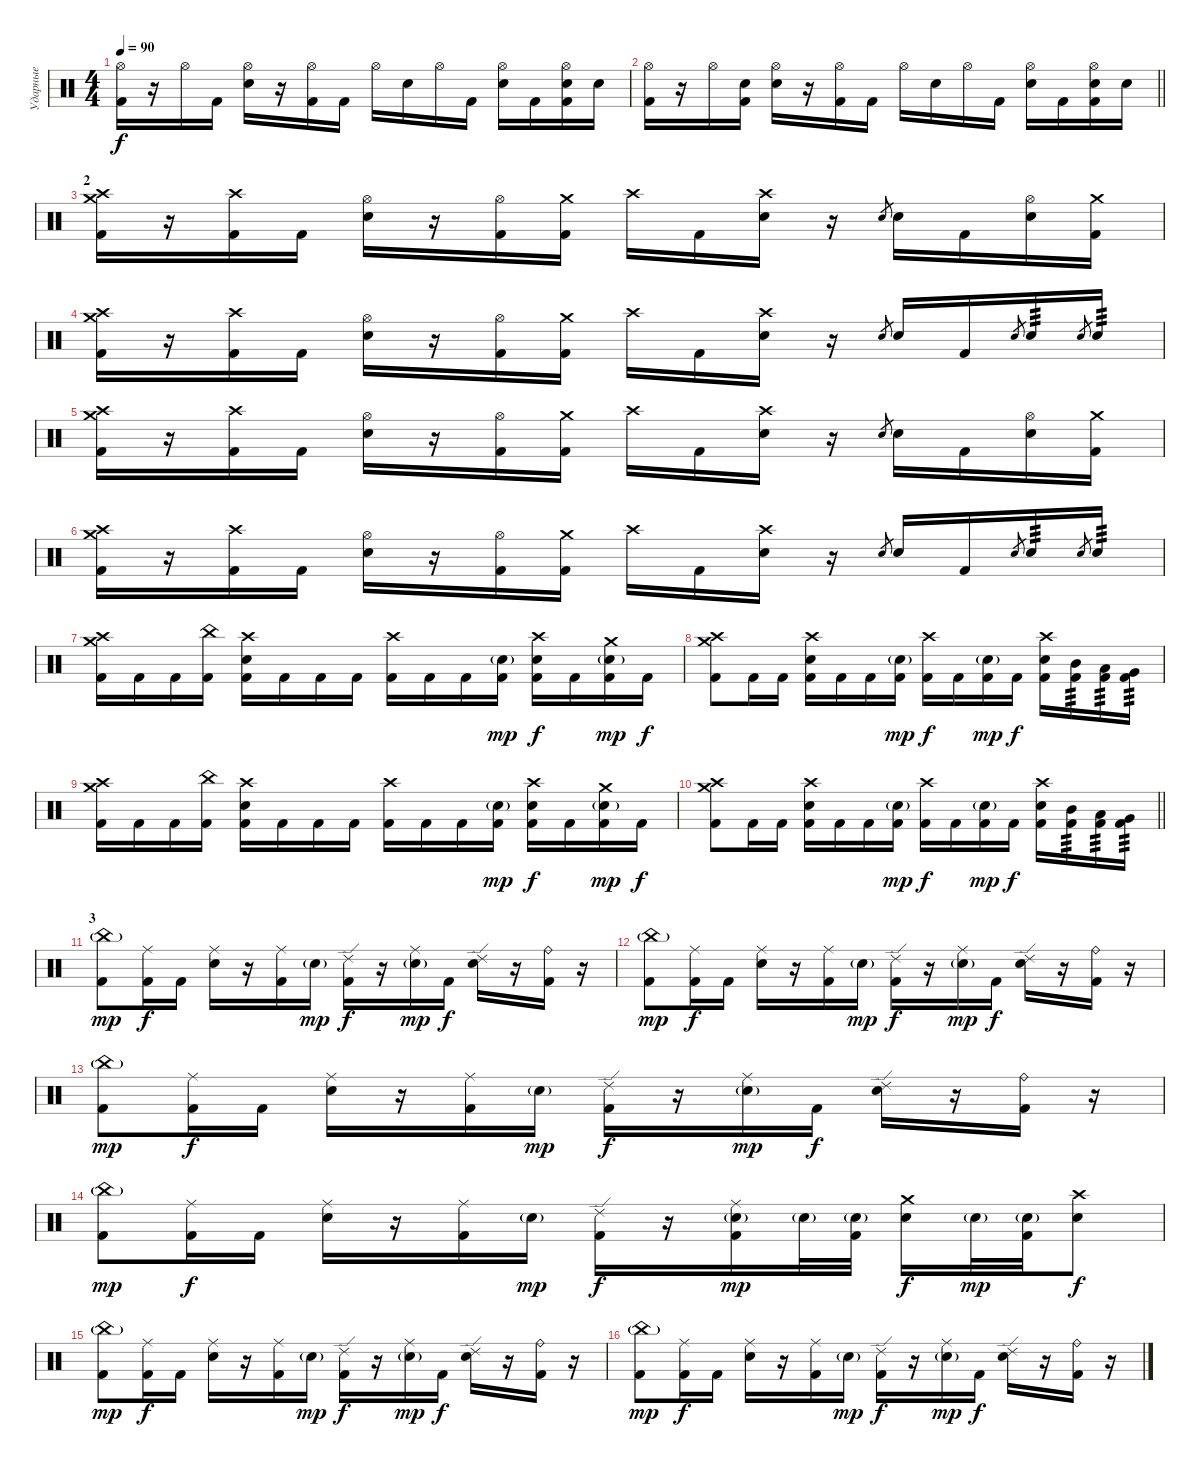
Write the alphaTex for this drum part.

\track ("Ударные" "Ударные") {instrument percussion}
\staff {score}
\articulation defaults
\ts (4 4)
\tempo 90
\clef neutral
\ks c
("Hi-Hat (open)" "Kick (hit) 2").16{dy f} r.16 "Hi-Hat (open)".16 "Kick (hit) 2".16 ("Electric Snare (hit)" "Hi-Hat (open)").16 r.16 ("Kick (hit) 2" "Hi-Hat (open)").16 "Kick (hit) 2".16 "Hi-Hat (open)".16 "Electric Snare (hit)".16 "Hi-Hat (open)".16 "Kick (hit) 2".16 ("Hi-Hat (open)" "Electric Snare (hit)").16 "Kick (hit) 2".16 ("Hi-Hat (open)" "Kick (hit) 2" "Electric Snare (hit)").16 "Electric Snare (hit)".16 |
\barLineRight lightlight
("Hi-Hat (open)" "Kick (hit) 2").16 r.16 "Hi-Hat (open)".16 ("Kick (hit) 2" "Electric Snare (hit)").16 ("Electric Snare (hit)" "Hi-Hat (open)").16 r.16 ("Kick (hit) 2" "Hi-Hat (open)").16 "Kick (hit) 2".16 "Hi-Hat (open)".16 "Electric Snare (hit)".16 "Hi-Hat (open)".16 "Kick (hit) 2".16 ("Hi-Hat (open)" "Electric Snare (hit)").16 "Kick (hit) 2".16 ("Hi-Hat (open)" "Kick (hit) 2" "Electric Snare (hit)").16 "Electric Snare (hit)".16 |
\section ("" "2")
("Kick (hit) 2" "Crash medium (hit)" "Crash high (hit)").16 r.16 ("Kick (hit) 2" "Crash high (hit)").16 "Kick (hit) 2".16 ("Electric Snare (hit)" "Hi-Hat (open)").16 r.16 ("Kick (hit) 2" "Hi-Hat (open)").16 ("Kick (hit) 2" "Crash medium (hit)").16 "Crash high (hit)".16 "Kick (hit) 2".16 ("Electric Snare (hit)" "Crash high (hit)").16 r.16 "Electric Snare (hit)".8{gr} "Electric Snare (hit)".16 "Kick (hit) 2".16 ("Electric Snare (hit)" "Hi-Hat (open)").16 ("Kick (hit) 2" "Crash medium (hit)").16 |
("Kick (hit) 2" "Crash medium (hit)" "Crash high (hit)").16 r.16 ("Kick (hit) 2" "Crash high (hit)").16 "Kick (hit) 2".16 ("Electric Snare (hit)" "Hi-Hat (open)").16 r.16 ("Kick (hit) 2" "Hi-Hat (open)").16 ("Kick (hit) 2" "Crash medium (hit)").16 "Crash high (hit)".16 "Kick (hit) 2".16 ("Electric Snare (hit)" "Crash high (hit)").16 r.16 "Electric Snare (hit)".8{gr} "Electric Snare (hit)".16 "Kick (hit) 2".16 "Electric Snare (hit)".8{gr} "Electric Snare (hit)".16{tp 3} "Electric Snare (hit)".8{gr} "Electric Snare (hit)".16{tp 3} |
("Kick (hit) 2" "Crash medium (hit)" "Crash high (hit)").16 r.16 ("Kick (hit) 2" "Crash high (hit)").16 "Kick (hit) 2".16 ("Electric Snare (hit)" "Hi-Hat (open)").16 r.16 ("Kick (hit) 2" "Hi-Hat (open)").16 ("Kick (hit) 2" "Crash medium (hit)").16 "Crash high (hit)".16 "Kick (hit) 2".16 ("Electric Snare (hit)" "Crash high (hit)").16 r.16 "Electric Snare (hit)".8{gr} "Electric Snare (hit)".16 "Kick (hit) 2".16 ("Electric Snare (hit)" "Hi-Hat (open)").16 ("Kick (hit) 2" "Crash medium (hit)").16 |
("Kick (hit) 2" "Crash medium (hit)" "Crash high (hit)").16 r.16 ("Kick (hit) 2" "Crash high (hit)").16 "Kick (hit) 2".16 ("Electric Snare (hit)" "Hi-Hat (open)").16 r.16 ("Kick (hit) 2" "Hi-Hat (open)").16 ("Kick (hit) 2" "Crash medium (hit)").16 "Crash high (hit)".16 "Kick (hit) 2".16 ("Electric Snare (hit)" "Crash high (hit)").16 r.16 "Electric Snare (hit)".8{gr} "Electric Snare (hit)".16 "Kick (hit) 2".16 "Electric Snare (hit)".8{gr} "Electric Snare (hit)".16{tp 3} "Electric Snare (hit)".8{gr} "Electric Snare (hit)".16{tp 3} |
("Kick (hit) 2" "Crash medium (hit)" "Crash high (hit)").16 "Kick (hit) 2".16 "Kick (hit) 2".16 ("Kick (hit) 2" "China (hit)").16 ("Kick (hit) 2" "Electric Snare (hit)" "Crash high (hit)").16 "Kick (hit) 2".16 "Kick (hit) 2".16 "Kick (hit) 2".16 ("Kick (hit) 2" "Crash high (hit)").16 "Kick (hit) 2".16 "Kick (hit) 2".16 ("Kick (hit) 2" "Electric Snare (hit)"{g}).16{dy mp} ("Kick (hit) 2" "Electric Snare (hit)" "Crash high (hit)").16{dy f} "Kick (hit) 2".16 ("Kick (hit) 2" "Crash medium (hit)" "Electric Snare (hit)"{g}).16{dy mp} "Kick (hit) 2".16{dy f} |
("Kick (hit) 2" "Crash medium (hit)" "Crash high (hit)").8 "Kick (hit) 2".16 "Kick (hit) 2".16 ("Kick (hit) 2" "Crash high (hit)" "Electric Snare (hit)").16 "Kick (hit) 2".16 "Kick (hit) 2".16 ("Kick (hit) 2" "Electric Snare (hit)"{g}).16{dy mp} ("Kick (hit) 2" "Crash high (hit)").16{dy f} "Kick (hit) 2".16 ("Kick (hit) 2" "Electric Snare (hit)"{g}).16{dy mp} "Kick (hit) 2".16{dy f} ("Kick (hit) 2" "Crash high (hit)" "Electric Snare (hit)").16 ("Kick (hit) 2" "Mid Tom (hit)").16{tp 3} ("Kick (hit) 2" "Low Tom (hit)").16{tp 3} ("Kick (hit) 2" "Very Low Tom (hit)").16{tp 3} |
("Kick (hit) 2" "Crash medium (hit)" "Crash high (hit)").16 "Kick (hit) 2".16 "Kick (hit) 2".16 ("Kick (hit) 2" "China (hit)").16 ("Kick (hit) 2" "Electric Snare (hit)" "Crash high (hit)").16 "Kick (hit) 2".16 "Kick (hit) 2".16 "Kick (hit) 2".16 ("Kick (hit) 2" "Crash high (hit)").16 "Kick (hit) 2".16 "Kick (hit) 2".16 ("Kick (hit) 2" "Electric Snare (hit)"{g}).16{dy mp} ("Kick (hit) 2" "Electric Snare (hit)" "Crash high (hit)").16{dy f} "Kick (hit) 2".16 ("Kick (hit) 2" "Crash medium (hit)" "Electric Snare (hit)"{g}).16{dy mp} "Kick (hit) 2".16{dy f} |
\barLineRight lightlight
("Kick (hit) 2" "Crash medium (hit)" "Crash high (hit)").8 "Kick (hit) 2".16 "Kick (hit) 2".16 ("Kick (hit) 2" "Crash high (hit)" "Electric Snare (hit)").16 "Kick (hit) 2".16 "Kick (hit) 2".16 ("Kick (hit) 2" "Electric Snare (hit)"{g}).16{dy mp} ("Kick (hit) 2" "Crash high (hit)").16{dy f} "Kick (hit) 2".16 ("Kick (hit) 2" "Electric Snare (hit)"{g}).16{dy mp} "Kick (hit) 2".16{dy f} ("Kick (hit) 2" "Crash high (hit)" "Electric Snare (hit)").16 ("Kick (hit) 2" "Mid Tom (hit)").16{tp 3} ("Kick (hit) 2" "Low Tom (hit)").16{tp 3} ("Kick (hit) 2" "Very Low Tom (hit)").16{tp 3} |
\section ("" "3")
("China (hit)"{g} "Kick (hit) 2").8{dy mp} ("Ride (middle)" "Kick (hit) 2").16{dy f} "Kick (hit) 2".16 ("Ride (middle)" "Electric Snare (hit)").16 r.16 ("Kick (hit) 2" "Ride (middle)").16 "Electric Snare (hit)"{g}.16{dy mp} ("Kick (hit) 2" "Ride (edge) 2").16{dy f} r.16 ("Ride (middle)" "Electric Snare (hit)"{g}).16{dy mp} "Kick (hit) 2".16{dy f} ("Electric Snare (hit)" "Ride (edge) 2").16 r.16 ("Kick (hit) 2" "Ride (bell)").16 r.16 |
("China (hit)"{g} "Kick (hit) 2").8{dy mp} ("Ride (middle)" "Kick (hit) 2").16{dy f} "Kick (hit) 2".16 ("Ride (middle)" "Electric Snare (hit)").16 r.16 ("Kick (hit) 2" "Ride (middle)").16 "Electric Snare (hit)"{g}.16{dy mp} ("Kick (hit) 2" "Ride (edge) 2").16{dy f} r.16 ("Ride (middle)" "Electric Snare (hit)"{g}).16{dy mp} "Kick (hit) 2".16{dy f} ("Electric Snare (hit)" "Ride (edge) 2").16 r.16 ("Kick (hit) 2" "Ride (bell)").16 r.16 |
("China (hit)"{g} "Kick (hit) 2").8{dy mp} ("Ride (middle)" "Kick (hit) 2").16{dy f} "Kick (hit) 2".16 ("Ride (middle)" "Electric Snare (hit)").16 r.16 ("Kick (hit) 2" "Ride (middle)").16 "Electric Snare (hit)"{g}.16{dy mp} ("Kick (hit) 2" "Ride (edge) 2").16{dy f} r.16 ("Ride (middle)" "Electric Snare (hit)"{g}).16{dy mp} "Kick (hit) 2".16{dy f} ("Electric Snare (hit)" "Ride (edge) 2").16 r.16 ("Kick (hit) 2" "Ride (bell)").16 r.16 |
("China (hit)"{g} "Kick (hit) 2").8{dy mp} ("Ride (middle)" "Kick (hit) 2").16{dy f} "Kick (hit) 2".16 ("Ride (middle)" "Electric Snare (hit)").16 r.16 ("Kick (hit) 2" "Ride (middle)").16 "Electric Snare (hit)"{g}.16{dy mp} ("Kick (hit) 2" "Ride (edge) 2").16{dy f} r.16 ("Ride (middle)" "Electric Snare (hit)"{g} "Kick (hit) 2").16{dy mp} "Electric Snare (hit)"{g}.32 ("Electric Snare (hit)"{g} "Kick (hit) 2").32 ("Electric Snare (hit)" "Crash medium (hit)").16{dy f} "Electric Snare (hit)"{g}.32{dy mp} ("Electric Snare (hit)"{g} "Kick (hit) 2").32 ("Electric Snare (hit)" "Crash high (hit)").8{dy f} |
("China (hit)"{g} "Kick (hit) 2").8{dy mp} ("Ride (middle)" "Kick (hit) 2").16{dy f} "Kick (hit) 2".16 ("Ride (middle)" "Electric Snare (hit)").16 r.16 ("Kick (hit) 2" "Ride (middle)").16 "Electric Snare (hit)"{g}.16{dy mp} ("Kick (hit) 2" "Ride (edge) 2").16{dy f} r.16 ("Ride (middle)" "Electric Snare (hit)"{g}).16{dy mp} "Kick (hit) 2".16{dy f} ("Electric Snare (hit)" "Ride (edge) 2").16 r.16 ("Kick (hit) 2" "Ride (bell)").16 r.16 |
("China (hit)"{g} "Kick (hit) 2").8{dy mp} ("Ride (middle)" "Kick (hit) 2").16{dy f} "Kick (hit) 2".16 ("Ride (middle)" "Electric Snare (hit)").16 r.16 ("Kick (hit) 2" "Ride (middle)").16 "Electric Snare (hit)"{g}.16{dy mp} ("Kick (hit) 2" "Ride (edge) 2").16{dy f} r.16 ("Ride (middle)" "Electric Snare (hit)"{g}).16{dy mp} "Kick (hit) 2".16{dy f} ("Electric Snare (hit)" "Ride (edge) 2").16 r.16 ("Kick (hit) 2" "Ride (bell)").16 r.16
